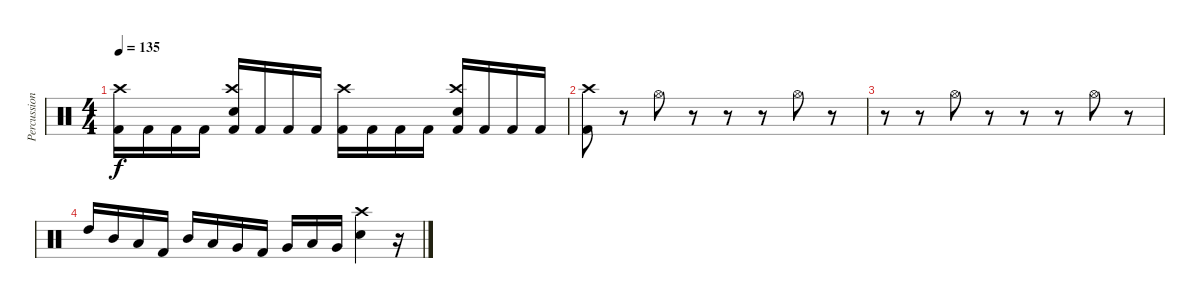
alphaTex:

\track ("Percussion" "Percussion") {instrument percussion}
\staff {score}
\articulation defaults
\ts (4 4)
\tempo 135
\clef neutral
\ks c
("Kick (hit) 2" "Crash high (hit)").16{dy f} "Kick (hit) 2".16 "Kick (hit) 2".16 "Kick (hit) 2".16 ("Kick (hit) 2" "Crash high (hit)" "Electric Snare (hit)").16 "Kick (hit) 2".16 "Kick (hit) 2".16 "Kick (hit) 2".16 ("Kick (hit) 2" "Crash high (hit)").16 "Kick (hit) 2".16 "Kick (hit) 2".16 "Kick (hit) 2".16 ("Kick (hit) 2" "Crash high (hit)" "Electric Snare (hit)").16 "Kick (hit) 2".16 "Kick (hit) 2".16 "Kick (hit) 2".16 |
("Crash high (hit)" "Kick (hit) 2").8 r.8 "Hi-Hat (open)".8 r.8 r.8 r.8 "Hi-Hat (open)".8 r.8 |
r.8 r.8 "Hi-Hat (open)".8 r.8 r.8 r.8 "Hi-Hat (open)".8 r.8 |
"High Tom (hit)".16 "Mid Tom (hit)".16 "Low Tom (hit)".16 "Kick (hit) 2".16 "Mid Tom (hit)".16 "Low Tom (hit)".16 "Very Low Tom (hit)".16 "Kick (hit) 2".16 "Very Low Tom (hit)".16 "Low Floor Tom (hit)".16 "Very Low Tom (hit)".16 ("Electric Snare (hit)" "Crash high (hit)").4 r.16
